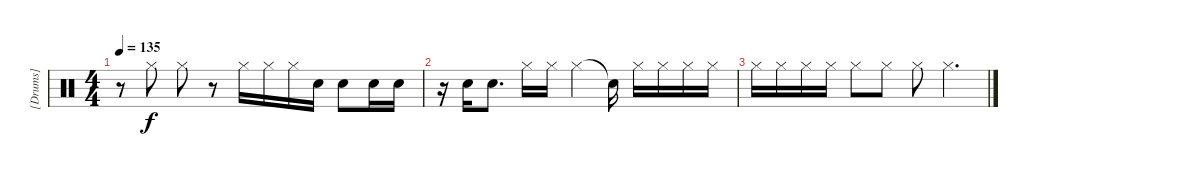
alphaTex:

\track ("[Drums]" "[Drums]") {instrument percussion}
\staff {score}
\articulation defaults
\ts (4 4)
\tempo 135
\clef neutral
\ks c
r.8{dy f} "Hi-Hat (closed)".8 "Hi-Hat (closed)".8 r.8 "Hi-Hat (closed)".16 "Hi-Hat (closed)".16 "Hi-Hat (closed)".16 "Electric Snare (hit)".16 "Electric Snare (hit)".8 "Electric Snare (hit)".16 "Electric Snare (hit)".16 |
r.16 "Electric Snare (hit)".16 "Electric Snare (hit)".8{d} "Hi-Hat (closed)".16 "Hi-Hat (closed)".16 "Hi-Hat (closed)".4 "Snare (hit)"{t}.16 "Hi-Hat (closed)".16 "Hi-Hat (closed)".16 "Hi-Hat (closed)".16 "Hi-Hat (closed)".16 |
"Hi-Hat (closed)".16 "Hi-Hat (closed)".16 "Hi-Hat (closed)".16 "Hi-Hat (closed)".16 "Hi-Hat (closed)".8 "Hi-Hat (closed)".8 "Hi-Hat (closed)".8 "Hi-Hat (closed)".4{d}
